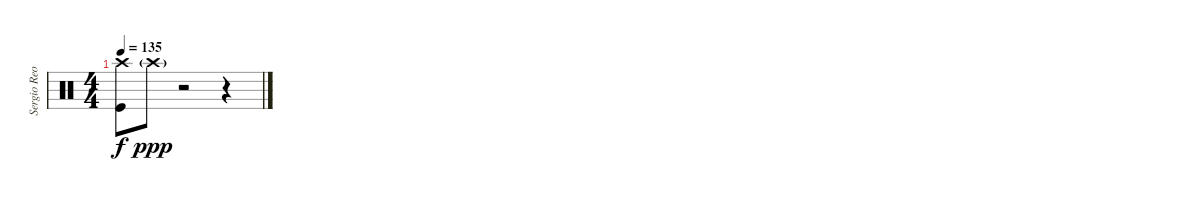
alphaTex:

\track ("Sergio Reoli" "Sergio Reo") {instrument percussion}
\staff {score}
\articulation defaults
\ts (4 4)
\tempo 135
\clef neutral
\ks c
("Crash high (hit)" "Kick (hit)").8{dy f} "Crash high (hit)"{g}.8{dy ppp} r.2 r.4
